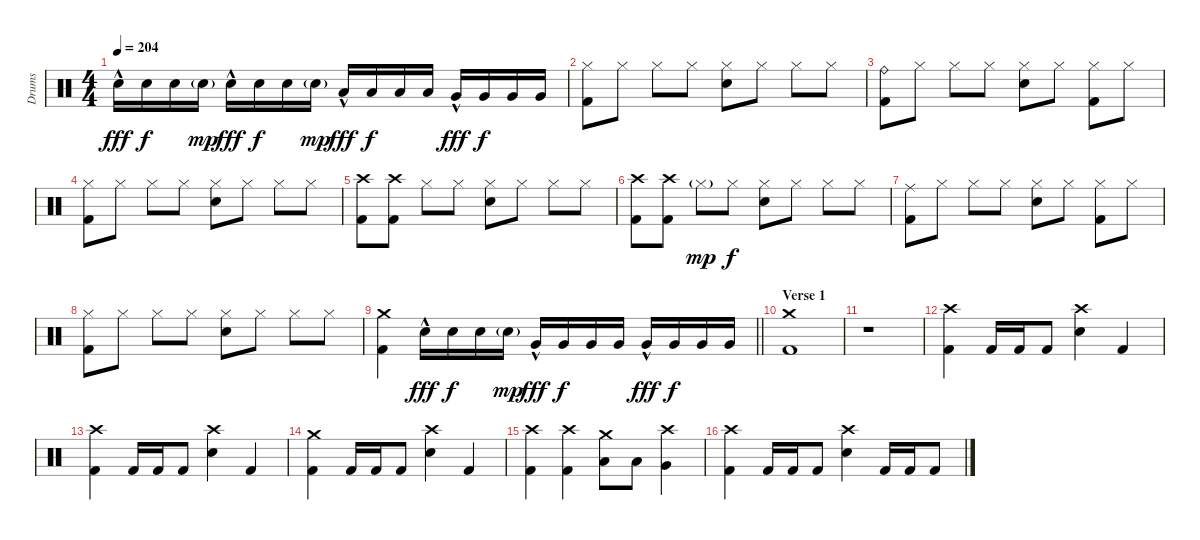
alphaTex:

\track ("Drums" "Drums") {instrument percussion}
\staff {score}
\articulation defaults
\ts (4 4)
\tempo 204
\clef neutral
\ks c "Snare (hit) 2"{hac}.16{dy fff} "Snare (hit) 2".16{dy f} "Snare (hit) 2".16 "Snare (hit) 2"{g}.16{dy mp} "Snare (hit) 2"{hac}.16{dy fff} "Snare (hit) 2".16{dy f} "Snare (hit) 2".16 "Snare (hit) 2"{g}.16{dy mp} "Low Tom (hit)"{hac}.16{dy fff} "Low Tom (hit)".16{dy f} "Low Tom (hit)".16 "Low Tom (hit)".16 "Very Low Tom (hit)"{hac}.16{dy fff} "Very Low Tom (hit)".16{dy f} "Very Low Tom (hit)".16 "Very Low Tom (hit)".16
|
("Hi-Hat (closed)" "Kick (hit) 2").8 "Hi-Hat (closed)".8 "Hi-Hat (closed)".8 "Hi-Hat (closed)".8 ("Hi-Hat (closed)" "Snare (hit) 2").8 "Hi-Hat (closed)".8 "Hi-Hat (closed)".8 "Hi-Hat (closed)".8 |
("Ride (bell)" "Kick (hit) 2").8 "Hi-Hat (closed)".8 "Hi-Hat (closed)".8 "Hi-Hat (closed)".8 ("Hi-Hat (closed)" "Snare (hit) 2").8 "Hi-Hat (closed)".8 ("Hi-Hat (closed)" "Kick (hit) 2").8 "Hi-Hat (closed)".8 |
("Hi-Hat (closed)" "Kick (hit) 2").8 "Hi-Hat (closed)".8 "Hi-Hat (closed)".8 "Hi-Hat (closed)".8 ("Hi-Hat (closed)" "Snare (hit) 2").8 "Hi-Hat (closed)".8 "Hi-Hat (closed)".8 "Hi-Hat (closed)".8 |
("Crash high (hit)" "Kick (hit) 2").8 ("Crash high (hit)" "Kick (hit) 2").8 "Hi-Hat (closed)".8 "Hi-Hat (closed)".8 ("Hi-Hat (closed)" "Snare (hit) 2").8 "Hi-Hat (closed)".8 "Hi-Hat (closed)".8 "Hi-Hat (closed)".8 |
("Crash high (hit)" "Kick (hit) 2").8 ("Crash high (hit)" "Kick (hit) 2").8 "Hi-Hat (closed)"{g}.8{dy mp} "Hi-Hat (closed)".8{dy f} ("Hi-Hat (closed)" "Snare (hit) 2").8 "Hi-Hat (closed)".8 "Hi-Hat (closed)".8 "Hi-Hat (closed)".8 |
("Ride (middle)" "Kick (hit) 2").8 "Hi-Hat (closed)".8 "Hi-Hat (closed)".8 "Hi-Hat (closed)".8 ("Hi-Hat (closed)" "Snare (hit) 2").8 "Hi-Hat (closed)".8 ("Hi-Hat (closed)" "Kick (hit) 2").8 "Hi-Hat (closed)".8 |
("Hi-Hat (closed)" "Kick (hit) 2").8 "Hi-Hat (closed)".8 "Hi-Hat (closed)".8 "Hi-Hat (closed)".8 ("Hi-Hat (closed)" "Snare (hit) 2").8 "Hi-Hat (closed)".8 "Hi-Hat (closed)".8 "Hi-Hat (closed)".8 |
\barLineRight lightlight
("Crash medium (hit)" "Kick (hit) 2").4 "Snare (hit) 2"{hac}.16{dy fff} "Snare (hit) 2".16{dy f} "Snare (hit) 2".16 "Snare (hit) 2"{g}.16{dy mp} "Very Low Tom (hit)"{hac}.16{dy fff} "Very Low Tom (hit)".16{dy f} "Very Low Tom (hit)".16 "Very Low Tom (hit)".16 "Very Low Tom (hit)"{hac}.16{dy fff} "Very Low Tom (hit)".16{dy f} "Very Low Tom (hit)".16 "Very Low Tom (hit)".16 |
\section ("" "Verse 1")
("Crash medium (hit)" "Kick (hit) 2").1{volume 0} |
r.1 |
("Crash high (hit)" "Kick (hit) 2").4{volume 15} "Kick (hit) 2".16 "Kick (hit) 2".16 "Kick (hit) 2".8 ("Crash high (hit)" "Snare (hit) 2").4 "Kick (hit) 2".4 |
("Crash high (hit)" "Kick (hit) 2").4 "Kick (hit) 2".16 "Kick (hit) 2".16 "Kick (hit) 2".8 ("Crash high (hit)" "Snare (hit) 2").4 "Kick (hit) 2".4 |
("Crash medium (hit)" "Kick (hit) 2").4 "Kick (hit) 2".16 "Kick (hit) 2".16 "Kick (hit) 2".8 ("Crash high (hit)" "Snare (hit) 2").4 "Kick (hit) 2".4 |
("Crash high (hit)" "Kick (hit) 2").4 ("Crash high (hit)" "Kick (hit) 2").4 ("Crash medium (hit)" "Low Floor Tom (hit)").8 "Low Floor Tom (hit)".8 ("Crash high (hit)" "Very Low Tom (hit)").4 |
("Crash high (hit)" "Kick (hit) 2").4 "Kick (hit) 2".16 "Kick (hit) 2".16 "Kick (hit) 2".8 ("Crash high (hit)" "Snare (hit) 2").4 "Kick (hit) 2".16 "Kick (hit) 2".16 "Kick (hit) 2".8
